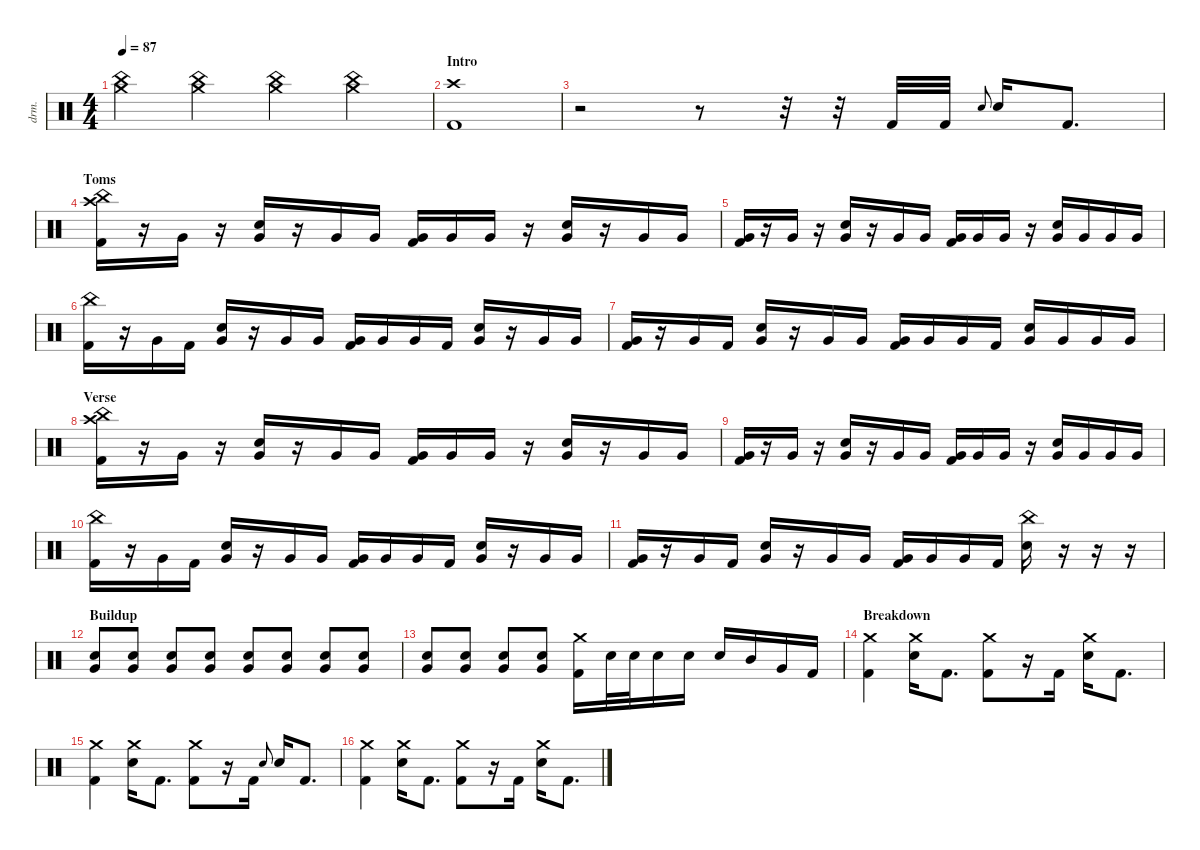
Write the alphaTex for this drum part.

\defaultSystemsLayout 4
\hideDynamics
\bracketExtendMode nobrackets
\track ("Drums - Mario" "drm.") {instrument percussion}
\staff {score}
\articulation defaults
\ts (4 4)
\tempo 87
\clef neutral
\ks c
("Crash medium (hit)" "China (hit)").4{dy ff} ("Crash medium (hit)" "China (hit)").4 ("Crash medium (hit)" "China (hit)").4 ("Crash medium (hit)" "China (hit)").4 |
\section ("" "Intro")
("Crash high (hit)" "Kick (hit) 2").1 |
r.2 r.8 r.32 r.32 "Kick (hit) 2".32 "Kick (hit) 2".32 "Snare (hit) 2".8{gr onbeat} "Snare (hit) 2".16 "Kick (hit) 2".8{d} |
\section ("" "Toms")
("Kick (hit) 2" "Crash high (hit)" "China (hit)").16 r.16 "Very Low Tom (hit)".16 r.16 ("Very Low Tom (hit)" "Snare (hit) 2").16 r.16 "Very Low Tom (hit)".16 "Very Low Tom (hit)".16 ("Very Low Tom (hit)" "Kick (hit) 2").16 "Very Low Tom (hit)".16 "Very Low Tom (hit)".16 r.16 ("Very Low Tom (hit)" "Snare (hit) 2").16 r.16 "Very Low Tom (hit)".16 "Very Low Tom (hit)".16 |
("Kick (hit) 2" "Very Low Tom (hit)").16 r.16 "Very Low Tom (hit)".16 r.16 ("Very Low Tom (hit)" "Snare (hit) 2").16 r.16 "Very Low Tom (hit)".16 "Very Low Tom (hit)".16 ("Very Low Tom (hit)" "Kick (hit) 2").16 "Very Low Tom (hit)".16 "Very Low Tom (hit)".16 r.16 ("Very Low Tom (hit)" "Snare (hit) 2").16 "Very Low Tom (hit)".16 "Very Low Tom (hit)".16 "Very Low Tom (hit)".16 |
("Kick (hit) 2" "China (hit)").16 r.16 "Very Low Tom (hit)".16 "Kick (hit) 2".16 ("Very Low Tom (hit)" "Snare (hit) 2").16 r.16 "Very Low Tom (hit)".16 "Very Low Tom (hit)".16 ("Very Low Tom (hit)" "Kick (hit) 2").16 "Very Low Tom (hit)".16 "Very Low Tom (hit)".16 "Kick (hit) 2".16 ("Very Low Tom (hit)" "Snare (hit) 2").16 r.16 "Very Low Tom (hit)".16 "Very Low Tom (hit)".16 |
("Kick (hit) 2" "Very Low Tom (hit)").16 r.16 "Very Low Tom (hit)".16 "Kick (hit) 2".16 ("Very Low Tom (hit)" "Snare (hit) 2").16 r.16 "Very Low Tom (hit)".16 "Very Low Tom (hit)".16 ("Very Low Tom (hit)" "Kick (hit) 2").16 "Very Low Tom (hit)".16 "Very Low Tom (hit)".16 "Kick (hit) 2".16 ("Very Low Tom (hit)" "Snare (hit) 2").16 "Very Low Tom (hit)".16 "Very Low Tom (hit)".16 "Very Low Tom (hit)".16 |
\section ("" "Verse")
("Kick (hit) 2" "Crash high (hit)" "China (hit)").16 r.16 "Very Low Tom (hit)".16 r.16 ("Very Low Tom (hit)" "Snare (hit) 2").16 r.16 "Very Low Tom (hit)".16 "Very Low Tom (hit)".16 ("Very Low Tom (hit)" "Kick (hit) 2").16 "Very Low Tom (hit)".16 "Very Low Tom (hit)".16 r.16 ("Very Low Tom (hit)" "Snare (hit) 2").16 r.16 "Very Low Tom (hit)".16 "Very Low Tom (hit)".16 |
("Kick (hit) 2" "Very Low Tom (hit)").16 r.16 "Very Low Tom (hit)".16 r.16 ("Very Low Tom (hit)" "Snare (hit) 2").16 r.16 "Very Low Tom (hit)".16 "Very Low Tom (hit)".16 ("Very Low Tom (hit)" "Kick (hit) 2").16 "Very Low Tom (hit)".16 "Very Low Tom (hit)".16 r.16 ("Very Low Tom (hit)" "Snare (hit) 2").16 "Very Low Tom (hit)".16 "Very Low Tom (hit)".16 "Very Low Tom (hit)".16 |
("Kick (hit) 2" "China (hit)").16 r.16 "Very Low Tom (hit)".16 "Kick (hit) 2".16 ("Very Low Tom (hit)" "Snare (hit) 2").16 r.16 "Very Low Tom (hit)".16 "Very Low Tom (hit)".16 ("Very Low Tom (hit)" "Kick (hit) 2").16 "Very Low Tom (hit)".16 "Very Low Tom (hit)".16 "Kick (hit) 2".16 ("Very Low Tom (hit)" "Snare (hit) 2").16 r.16 "Very Low Tom (hit)".16 "Very Low Tom (hit)".16 |
("Kick (hit) 2" "Very Low Tom (hit)").16 r.16 "Very Low Tom (hit)".16 "Kick (hit) 2".16 ("Very Low Tom (hit)" "Snare (hit) 2").16 r.16 "Very Low Tom (hit)".16 "Very Low Tom (hit)".16 ("Very Low Tom (hit)" "Kick (hit) 2").16 "Very Low Tom (hit)".16 "Very Low Tom (hit)".16 "Kick (hit) 2".16 ("Snare (hit) 2" "China (hit)").16 r.16 r.16 r.16 |
\section ("" "Buildup")
("Very Low Tom (hit)" "Snare (hit) 2").8 ("Very Low Tom (hit)" "Snare (hit) 2").8 ("Very Low Tom (hit)" "Snare (hit) 2").8 ("Very Low Tom (hit)" "Snare (hit) 2").8 ("Very Low Tom (hit)" "Snare (hit) 2").8 ("Very Low Tom (hit)" "Snare (hit) 2").8 ("Very Low Tom (hit)" "Snare (hit) 2").8 ("Very Low Tom (hit)" "Snare (hit) 2").8 |
("Very Low Tom (hit)" "Snare (hit) 2").8 ("Very Low Tom (hit)" "Snare (hit) 2").8 ("Very Low Tom (hit)" "Snare (hit) 2").8 ("Very Low Tom (hit)" "Snare (hit) 2").8 ("Crash medium (hit)" "Kick (hit) 2").16 "Snare (hit) 2".32 "Snare (hit) 2".32 "Snare (hit) 2".16 "Snare (hit) 2".16 "Snare (hit) 2".16 "Mid Tom (hit)".16 "Very Low Tom (hit)".16 "Kick (hit) 2".16 |
\section ("" "Breakdown")
("Kick (hit) 2" "Crash medium (hit)").4 ("Snare (hit) 2" "Crash medium (hit)").16 "Kick (hit) 2".8{d} ("Kick (hit) 2" "Crash medium (hit)").8 r.16 "Kick (hit) 2".16 ("Snare (hit) 2" "Crash medium (hit)").16 "Kick (hit) 2".8{d} |
("Kick (hit) 2" "Crash medium (hit)").4 ("Snare (hit) 2" "Crash medium (hit)").16 "Kick (hit) 2".8{d} ("Kick (hit) 2" "Crash medium (hit)").8 r.16 "Kick (hit) 2".16 "Snare (hit) 2".8{gr onbeat} "Snare (hit) 2".16 "Kick (hit) 2".8{d} |
("Kick (hit) 2" "Crash medium (hit)").4 ("Snare (hit) 2" "Crash medium (hit)").16 "Kick (hit) 2".8{d} ("Kick (hit) 2" "Crash medium (hit)").8 r.16 "Kick (hit) 2".16 ("Snare (hit) 2" "Crash medium (hit)").16 "Kick (hit) 2".8{d}
